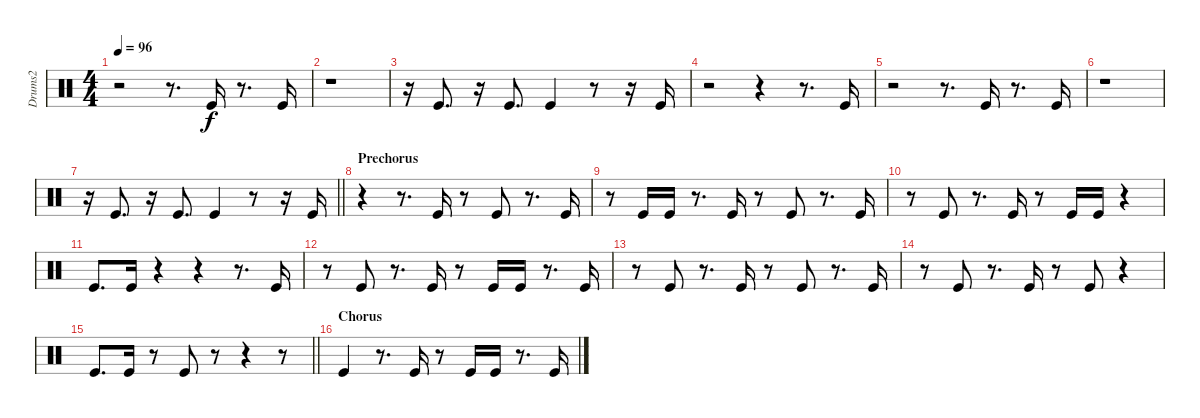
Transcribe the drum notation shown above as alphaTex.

\track ("Drums2" "Drums2") {instrument percussion}
\staff {score}
\articulation defaults
\ts (4 4)
\tempo 96
\clef neutral
\ks c
r.2{dy f} r.8{d} "Kick (hit)".16 r.8{d} "Kick (hit)".16 |
r.1 |
r.16 "Kick (hit)".8{d} r.16 "Kick (hit)".8{d} "Kick (hit)".4 r.8 r.16 "Kick (hit)".16 |
r.2 r.4 r.8{d} "Kick (hit)".16 |
r.2 r.8{d} "Kick (hit)".16 r.8{d} "Kick (hit)".16 |
r.1 |
\barLineRight lightlight
r.16 "Kick (hit)".8{d} r.16 "Kick (hit)".8{d} "Kick (hit)".4 r.8 r.16 "Kick (hit)".16 |
\section ("" "Prechorus")
r.4 r.8{d} "Kick (hit)".16 r.8 "Kick (hit)".8 r.8{d} "Kick (hit)".16 |
r.8 "Kick (hit)".16 "Kick (hit)".16 r.8{d} "Kick (hit)".16 r.8 "Kick (hit)".8 r.8{d} "Kick (hit)".16 |
r.8 "Kick (hit)".8 r.8{d} "Kick (hit)".16 r.8 "Kick (hit)".16 "Kick (hit)".16 r.4 |
"Kick (hit)".8{d} "Kick (hit)".16 r.4 r.4 r.8{d} "Kick (hit)".16 |
r.8 "Kick (hit)".8 r.8{d} "Kick (hit)".16 r.8 "Kick (hit)".16 "Kick (hit)".16 r.8{d} "Kick (hit)".16 |
r.8 "Kick (hit)".8 r.8{d} "Kick (hit)".16 r.8 "Kick (hit)".8 r.8{d} "Kick (hit)".16 |
r.8 "Kick (hit)".8 r.8{d} "Kick (hit)".16 r.8 "Kick (hit)".8 r.4 |
\barLineRight lightlight "Kick (hit)".8{d} "Kick (hit)".16
r.8 "Kick (hit)".8 r.8 r.4 r.8 |
\section ("" "Chorus")
"Kick (hit)".4 r.8{d} "Kick (hit)".16 r.8 "Kick (hit)".16 "Kick (hit)".16 r.8{d} "Kick (hit)".16
